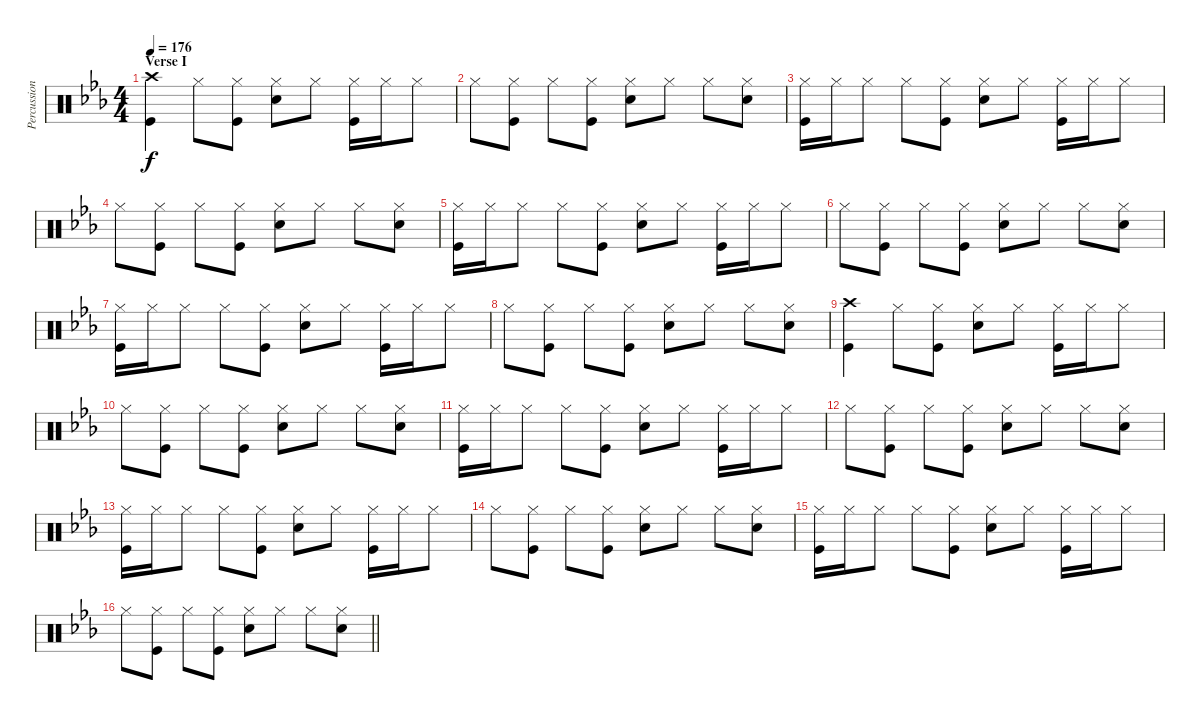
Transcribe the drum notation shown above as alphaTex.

\track ("Percussion" "Percussion") {instrument percussion}
\staff {score}
\articulation defaults
\ts (4 4)
\section ("" "Verse I")
\tempo 176
\clef neutral
\ks eb
("Crash high (hit)" "Kick (hit)").4{dy f} "Hi-Hat (closed)".8 ("Hi-Hat (closed)" "Kick (hit)").8 ("Hi-Hat (closed)" "Electric Snare (hit)").8 "Hi-Hat (closed)".8 ("Hi-Hat (closed)" "Kick (hit)").16 "Hi-Hat (closed)".16 "Hi-Hat (closed)".8 |
"Hi-Hat (closed)".8 ("Hi-Hat (closed)" "Kick (hit)").8 "Hi-Hat (closed)".8 ("Hi-Hat (closed)" "Kick (hit)").8 ("Hi-Hat (closed)" "Electric Snare (hit)").8 "Hi-Hat (closed)".8 "Hi-Hat (closed)".8 ("Hi-Hat (closed)" "Electric Snare (hit)").8 |
("Hi-Hat (closed)" "Kick (hit)").16 "Hi-Hat (closed)".16 "Hi-Hat (closed)".8 "Hi-Hat (closed)".8 ("Hi-Hat (closed)" "Kick (hit)").8 ("Hi-Hat (closed)" "Electric Snare (hit)").8 "Hi-Hat (closed)".8 ("Hi-Hat (closed)" "Kick (hit)").16 "Hi-Hat (closed)".16 "Hi-Hat (closed)".8 |
"Hi-Hat (closed)".8 ("Hi-Hat (closed)" "Kick (hit)").8 "Hi-Hat (closed)".8 ("Hi-Hat (closed)" "Kick (hit)").8 ("Hi-Hat (closed)" "Electric Snare (hit)").8 "Hi-Hat (closed)".8 "Hi-Hat (closed)".8 ("Hi-Hat (closed)" "Electric Snare (hit)").8 |
("Hi-Hat (closed)" "Kick (hit)").16 "Hi-Hat (closed)".16 "Hi-Hat (closed)".8 "Hi-Hat (closed)".8 ("Hi-Hat (closed)" "Kick (hit)").8 ("Hi-Hat (closed)" "Electric Snare (hit)").8 "Hi-Hat (closed)".8 ("Hi-Hat (closed)" "Kick (hit)").16 "Hi-Hat (closed)".16 "Hi-Hat (closed)".8 |
"Hi-Hat (closed)".8 ("Hi-Hat (closed)" "Kick (hit)").8 "Hi-Hat (closed)".8 ("Hi-Hat (closed)" "Kick (hit)").8 ("Hi-Hat (closed)" "Electric Snare (hit)").8 "Hi-Hat (closed)".8 "Hi-Hat (closed)".8 ("Hi-Hat (closed)" "Electric Snare (hit)").8 |
("Hi-Hat (closed)" "Kick (hit)").16 "Hi-Hat (closed)".16 "Hi-Hat (closed)".8 "Hi-Hat (closed)".8 ("Hi-Hat (closed)" "Kick (hit)").8 ("Hi-Hat (closed)" "Electric Snare (hit)").8 "Hi-Hat (closed)".8 ("Hi-Hat (closed)" "Kick (hit)").16 "Hi-Hat (closed)".16 "Hi-Hat (closed)".8 |
"Hi-Hat (closed)".8 ("Hi-Hat (closed)" "Kick (hit)").8 "Hi-Hat (closed)".8 ("Hi-Hat (closed)" "Kick (hit)").8 ("Hi-Hat (closed)" "Electric Snare (hit)").8 "Hi-Hat (closed)".8 "Hi-Hat (closed)".8 ("Hi-Hat (closed)" "Electric Snare (hit)").8 |
("Crash high (hit)" "Kick (hit)").4 "Hi-Hat (closed)".8 ("Hi-Hat (closed)" "Kick (hit)").8 ("Hi-Hat (closed)" "Electric Snare (hit)").8 "Hi-Hat (closed)".8 ("Hi-Hat (closed)" "Kick (hit)").16 "Hi-Hat (closed)".16 "Hi-Hat (closed)".8 |
"Hi-Hat (closed)".8 ("Hi-Hat (closed)" "Kick (hit)").8 "Hi-Hat (closed)".8 ("Hi-Hat (closed)" "Kick (hit)").8 ("Hi-Hat (closed)" "Electric Snare (hit)").8 "Hi-Hat (closed)".8 "Hi-Hat (closed)".8 ("Hi-Hat (closed)" "Electric Snare (hit)").8 |
("Hi-Hat (closed)" "Kick (hit)").16 "Hi-Hat (closed)".16 "Hi-Hat (closed)".8 "Hi-Hat (closed)".8 ("Hi-Hat (closed)" "Kick (hit)").8 ("Hi-Hat (closed)" "Electric Snare (hit)").8 "Hi-Hat (closed)".8 ("Hi-Hat (closed)" "Kick (hit)").16 "Hi-Hat (closed)".16 "Hi-Hat (closed)".8 |
"Hi-Hat (closed)".8 ("Hi-Hat (closed)" "Kick (hit)").8 "Hi-Hat (closed)".8 ("Hi-Hat (closed)" "Kick (hit)").8 ("Hi-Hat (closed)" "Electric Snare (hit)").8 "Hi-Hat (closed)".8 "Hi-Hat (closed)".8 ("Hi-Hat (closed)" "Electric Snare (hit)").8 |
("Hi-Hat (closed)" "Kick (hit)").16 "Hi-Hat (closed)".16 "Hi-Hat (closed)".8 "Hi-Hat (closed)".8 ("Hi-Hat (closed)" "Kick (hit)").8 ("Hi-Hat (closed)" "Electric Snare (hit)").8 "Hi-Hat (closed)".8 ("Hi-Hat (closed)" "Kick (hit)").16 "Hi-Hat (closed)".16 "Hi-Hat (closed)".8 |
"Hi-Hat (closed)".8 ("Hi-Hat (closed)" "Kick (hit)").8 "Hi-Hat (closed)".8 ("Hi-Hat (closed)" "Kick (hit)").8 ("Hi-Hat (closed)" "Electric Snare (hit)").8 "Hi-Hat (closed)".8 "Hi-Hat (closed)".8 ("Hi-Hat (closed)" "Electric Snare (hit)").8 |
("Hi-Hat (closed)" "Kick (hit)").16 "Hi-Hat (closed)".16 "Hi-Hat (closed)".8 "Hi-Hat (closed)".8 ("Hi-Hat (closed)" "Kick (hit)").8 ("Hi-Hat (closed)" "Electric Snare (hit)").8 "Hi-Hat (closed)".8 ("Hi-Hat (closed)" "Kick (hit)").16 "Hi-Hat (closed)".16 "Hi-Hat (closed)".8 |
\barLineRight lightlight "Hi-Hat (closed)".8
("Hi-Hat (closed)" "Kick (hit)").8 "Hi-Hat (closed)".8 ("Hi-Hat (closed)" "Kick (hit)").8 ("Hi-Hat (closed)" "Electric Snare (hit)").8 "Hi-Hat (closed)".8 "Hi-Hat (closed)".8 ("Hi-Hat (closed)" "Electric Snare (hit)").8
